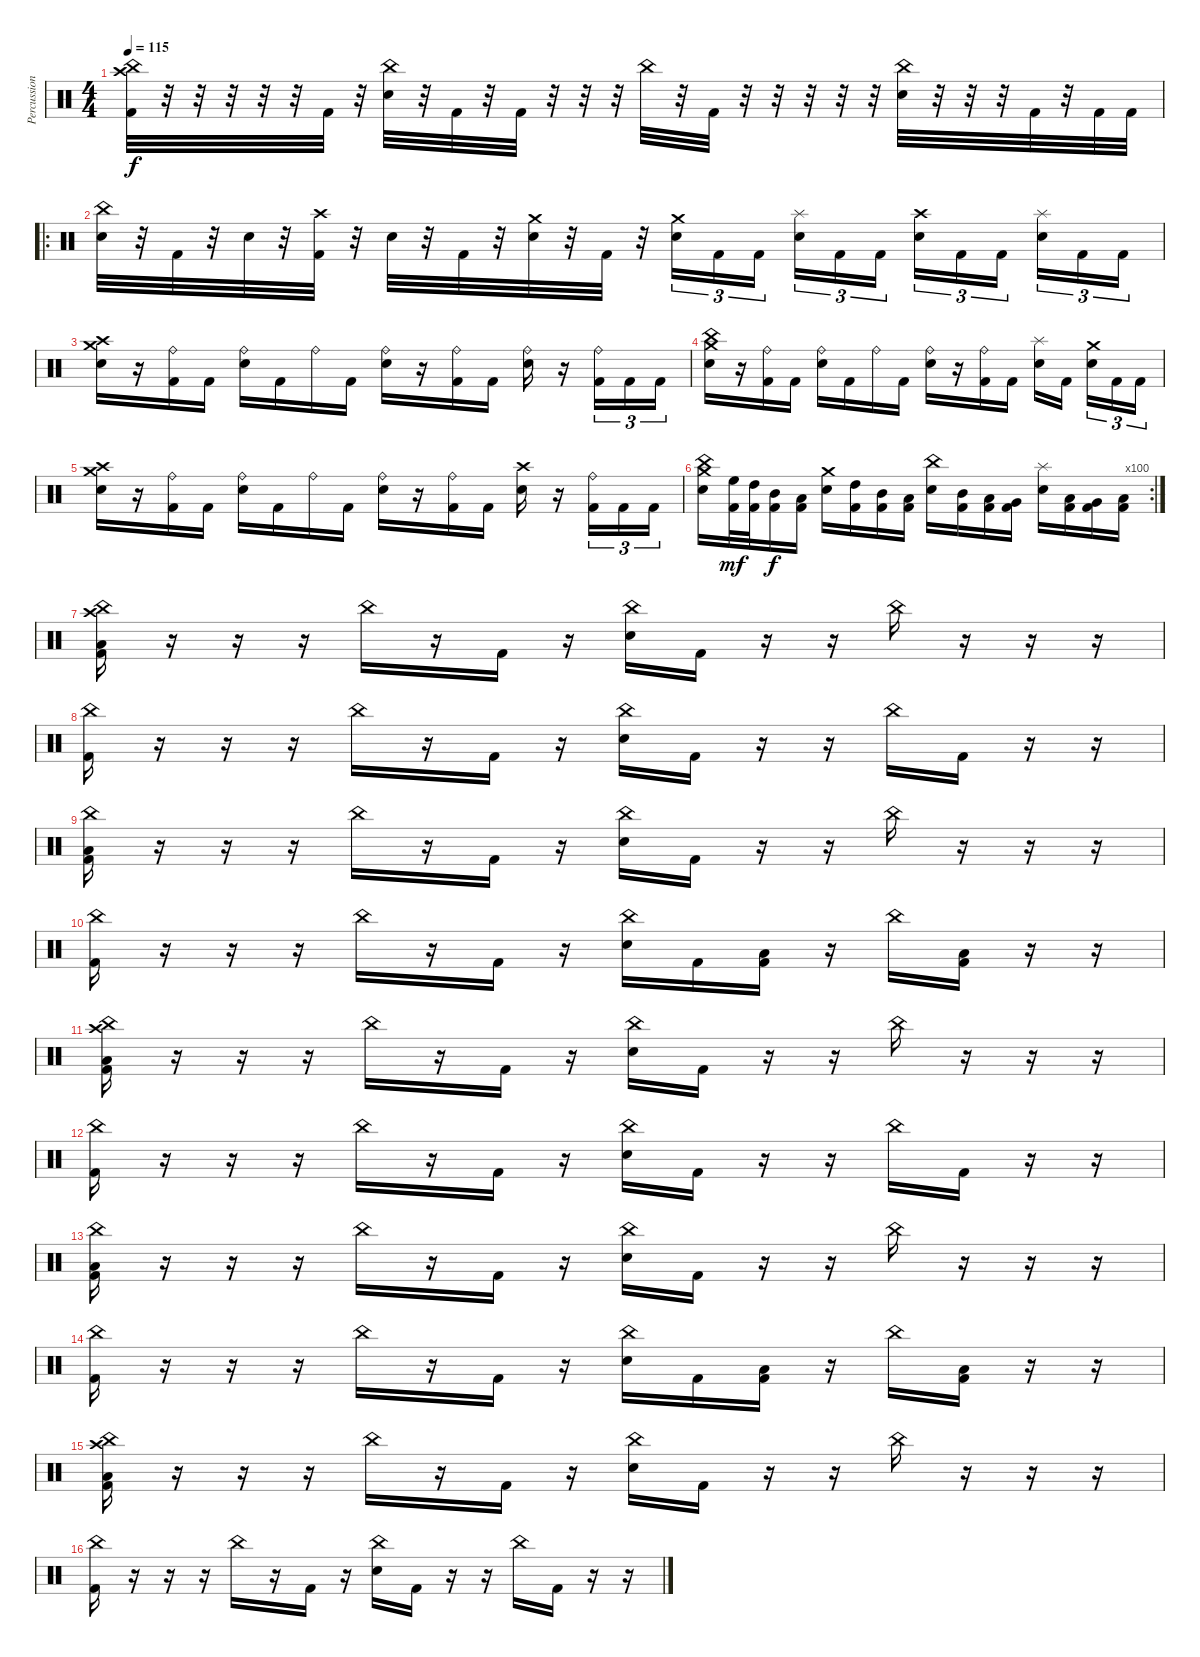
\track ("Percussion" "Percussion") {instrument percussion}
\staff {score}
\articulation defaults
\ts (4 4)
\tempo 115
\clef neutral
\ks c
("China (hit)" "Crash high (hit)" "Kick (hit) 2").32{dy f} r.32 r.32 r.32 r.32 r.32 "Kick (hit) 2".32 r.32 ("China (hit)" "Electric Snare (hit)").32 r.32 "Kick (hit) 2".32 r.32 "Kick (hit) 2".32 r.32 r.32 r.32 "China (hit)".32 r.32 "Kick (hit) 2".32 r.32 r.32 r.32 r.32 r.32 ("China (hit)" "Electric Snare (hit)").32 r.32 r.32 r.32 "Kick (hit) 2".32 r.32 "Kick (hit) 2".32 "Kick (hit) 2".32 |
\ro
("China (hit)" "Electric Snare (hit)").32 r.32 "Kick (hit) 2".32 r.32 "Electric Snare (hit)".32 r.32 ("Crash high (hit)" "Kick (hit) 2").32 r.32 "Electric Snare (hit)".32 r.32 "Kick (hit) 2".32 r.32 ("Crash medium (hit)" "Electric Snare (hit)").32 r.32 "Kick (hit) 2".32 r.32 ("Crash medium (hit)" "Electric Snare (hit)").16{tu (3 2)} "Kick (hit) 2".16{tu (3 2)} "Kick (hit) 2".16{tu (3 2)} ("Splash (hit)" "Electric Snare (hit)").16{tu (3 2)} "Kick (hit) 2".16{tu (3 2)} "Kick (hit) 2".16{tu (3 2)} ("Crash high (hit)" "Electric Snare (hit)").16{tu (3 2)} "Kick (hit) 2".16{tu (3 2)} "Kick (hit) 2".16{tu (3 2)} ("Splash (hit)" "Electric Snare (hit)").16{tu (3 2)} "Kick (hit) 2".16{tu (3 2)} "Kick (hit) 2".16{tu (3 2)} |
("Crash high (hit)" "Crash medium (hit)" "Electric Snare (hit)").16 r.16 ("Ride (bell)" "Kick (hit) 2").16 "Kick (hit) 2".16 ("Ride (bell)" "Electric Snare (hit)").16 "Kick (hit) 2".16 "Ride (bell)".16 "Kick (hit) 2".16 ("Ride (bell)" "Electric Snare (hit)").16 r.16 ("Ride (bell)" "Kick (hit) 2").16 "Kick (hit) 2".16 ("Ride (bell)" "Electric Snare (hit)").16 r.16 ("Ride (bell)" "Kick (hit) 2").16{tu (3 2)} "Kick (hit) 2".16{tu (3 2)} "Kick (hit) 2".16{tu (3 2)} |
("Crash medium (hit)" "China (hit)" "Electric Snare (hit)").16 r.16 ("Ride (bell)" "Kick (hit) 2").16 "Kick (hit) 2".16 ("Ride (bell)" "Electric Snare (hit)").16 "Kick (hit) 2".16 "Ride (bell)".16 "Kick (hit) 2".16 ("Ride (bell)" "Electric Snare (hit)").16 r.16 ("Ride (bell)" "Kick (hit) 2").16 "Kick (hit) 2".16 ("Splash (hit)" "Electric Snare (hit)").16 "Kick (hit) 2".16 ("Crash medium (hit)" "Electric Snare (hit)").16{tu (3 2)} "Kick (hit) 2".16{tu (3 2)} "Kick (hit) 2".16{tu (3 2)} |
("Crash high (hit)" "Crash medium (hit)" "Electric Snare (hit)").16 r.16 ("Ride (bell)" "Kick (hit) 2").16 "Kick (hit) 2".16 ("Ride (bell)" "Electric Snare (hit)").16 "Kick (hit) 2".16 "Ride (bell)".16 "Kick (hit) 2".16 ("Ride (bell)" "Electric Snare (hit)").16 r.16 ("Ride (bell)" "Kick (hit) 2").16 "Kick (hit) 2".16 ("Crash high (hit)" "Electric Snare (hit)").16 r.16 ("Ride (bell)" "Kick (hit) 2").16{tu (3 2)} "Kick (hit) 2".16{tu (3 2)} "Kick (hit) 2".16{tu (3 2)} |
\rc 100
("Crash medium (hit)" "China (hit)" "Electric Snare (hit)").16 ("High Floor Tom (hit)" "Kick (hit) 2").32{dy mf} ("High Tom (hit)" "Kick (hit) 2").32 ("Mid Tom (hit)" "Kick (hit) 2").16{dy f} ("Low Tom (hit)" "Kick (hit) 2").16 ("Crash medium (hit)" "Electric Snare (hit)").16 ("High Tom (hit)" "Kick (hit) 2").16 ("Mid Tom (hit)" "Kick (hit) 2").16 ("Low Tom (hit)" "Kick (hit) 2").16 ("China (hit)" "Electric Snare (hit)").16 ("Mid Tom (hit)" "Kick (hit) 2").16 ("Low Tom (hit)" "Kick (hit) 2").16 ("Very Low Tom (hit)" "Kick (hit) 2").16 ("Splash (hit)" "Electric Snare (hit)").16 ("Low Tom (hit)" "Kick (hit) 2").16 ("Very Low Tom (hit)" "Kick (hit) 2").16 ("Low Floor Tom (hit)" "Kick (hit) 2").16 |
("China (hit)" "Crash high (hit)" "Low Floor Tom (hit)" "Kick (hit) 2").16 r.16 r.16 r.16 "China (hit)".16 r.16 "Kick (hit) 2".16 r.16 ("China (hit)" "Electric Snare (hit)").16 "Kick (hit) 2".16 r.16 r.16 "China (hit)".16 r.16 r.16 r.16 |
("China (hit)" "Kick (hit) 2").16 r.16 r.16 r.16 "China (hit)".16 r.16 "Kick (hit) 2".16 r.16 ("China (hit)" "Electric Snare (hit)").16 "Kick (hit) 2".16 r.16 r.16 "China (hit)".16 "Kick (hit) 2".16 r.16 r.16 |
("China (hit)" "Low Floor Tom (hit)" "Kick (hit) 2").16 r.16 r.16 r.16 "China (hit)".16 r.16 "Kick (hit) 2".16 r.16 ("China (hit)" "Electric Snare (hit)").16 "Kick (hit) 2".16 r.16 r.16 "China (hit)".16 r.16 r.16 r.16 |
("China (hit)" "Kick (hit) 2").16 r.16 r.16 r.16 "China (hit)".16 r.16 "Kick (hit) 2".16 r.16 ("China (hit)" "Electric Snare (hit)").16 "Kick (hit) 2".16 ("Low Floor Tom (hit)" "Kick (hit) 2").16 r.16 "China (hit)".16 ("Low Floor Tom (hit)" "Kick (hit) 2").16 r.16 r.16 |
("China (hit)" "Crash high (hit)" "Low Floor Tom (hit)" "Kick (hit) 2").16 r.16 r.16 r.16 "China (hit)".16 r.16 "Kick (hit) 2".16 r.16 ("China (hit)" "Electric Snare (hit)").16 "Kick (hit) 2".16 r.16 r.16 "China (hit)".16 r.16 r.16 r.16 |
("China (hit)" "Kick (hit) 2").16 r.16 r.16 r.16 "China (hit)".16 r.16 "Kick (hit) 2".16 r.16 ("China (hit)" "Electric Snare (hit)").16 "Kick (hit) 2".16 r.16 r.16 "China (hit)".16 "Kick (hit) 2".16 r.16 r.16 |
("China (hit)" "Low Floor Tom (hit)" "Kick (hit) 2").16 r.16 r.16 r.16 "China (hit)".16 r.16 "Kick (hit) 2".16 r.16 ("China (hit)" "Electric Snare (hit)").16 "Kick (hit) 2".16 r.16 r.16 "China (hit)".16 r.16 r.16 r.16 |
("China (hit)" "Kick (hit) 2").16 r.16 r.16 r.16 "China (hit)".16 r.16 "Kick (hit) 2".16 r.16 ("China (hit)" "Electric Snare (hit)").16 "Kick (hit) 2".16 ("Low Floor Tom (hit)" "Kick (hit) 2").16 r.16 "China (hit)".16 ("Low Floor Tom (hit)" "Kick (hit) 2").16 r.16 r.16 |
("China (hit)" "Crash high (hit)" "Low Floor Tom (hit)" "Kick (hit) 2").16 r.16 r.16 r.16 "China (hit)".16 r.16 "Kick (hit) 2".16 r.16 ("China (hit)" "Electric Snare (hit)").16 "Kick (hit) 2".16 r.16 r.16 "China (hit)".16 r.16 r.16 r.16 |
("China (hit)" "Kick (hit) 2").16 r.16 r.16 r.16 "China (hit)".16 r.16 "Kick (hit) 2".16 r.16 ("China (hit)" "Electric Snare (hit)").16 "Kick (hit) 2".16 r.16 r.16 "China (hit)".16 "Kick (hit) 2".16 r.16 r.16
